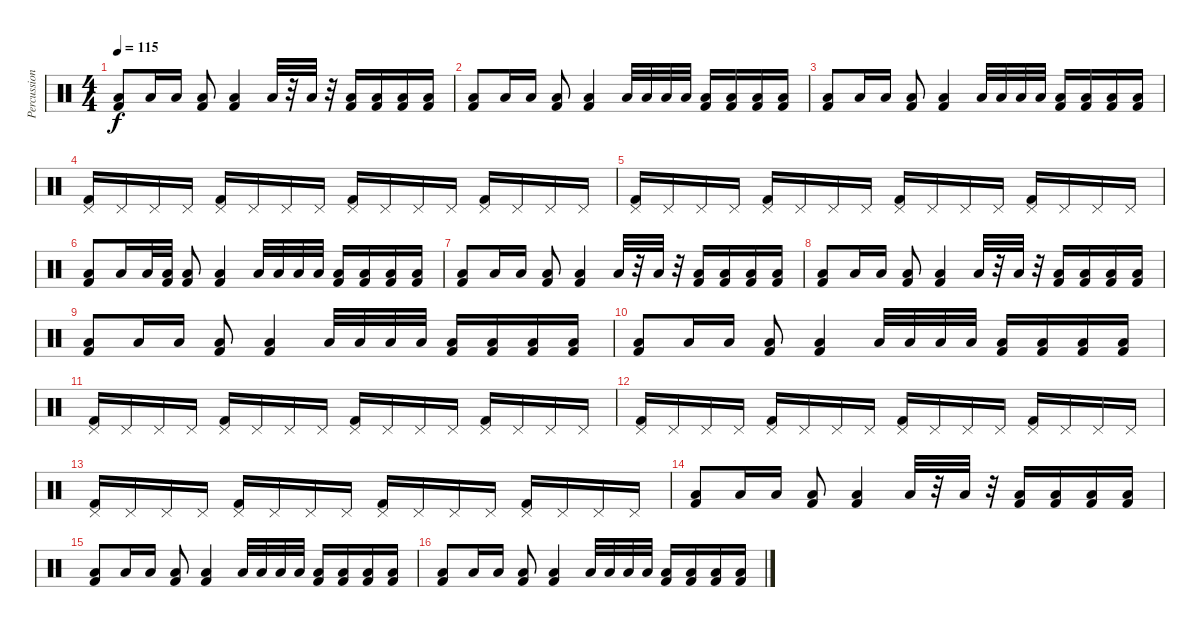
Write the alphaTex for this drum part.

\track ("Percussions" "Percussion") {instrument percussion}
\staff {score}
\articulation defaults
\ts (4 4)
\tempo 115
\clef neutral
\ks c
("Kick (hit) 2" "Low Floor Tom (hit)").8{dy f} "Low Floor Tom (hit)".16 "Low Floor Tom (hit)".16 ("Kick (hit) 2" "Low Floor Tom (hit)").8 ("Kick (hit) 2" "Low Floor Tom (hit)").4 "Low Floor Tom (hit)".32 r.32 "Low Floor Tom (hit)".32 r.32 ("Kick (hit) 2" "Low Floor Tom (hit)").16 ("Kick (hit) 2" "Low Floor Tom (hit)").16 ("Kick (hit) 2" "Low Floor Tom (hit)").16 ("Kick (hit) 2" "Low Floor Tom (hit)").16 |
("Kick (hit) 2" "Low Floor Tom (hit)").8 "Low Floor Tom (hit)".16 "Low Floor Tom (hit)".16 ("Kick (hit) 2" "Low Floor Tom (hit)").8 ("Kick (hit) 2" "Low Floor Tom (hit)").4 "Low Floor Tom (hit)".32 "Low Floor Tom (hit)".32 "Low Floor Tom (hit)".32 "Low Floor Tom (hit)".32 ("Kick (hit) 2" "Low Floor Tom (hit)").16 ("Kick (hit) 2" "Low Floor Tom (hit)").16 ("Kick (hit) 2" "Low Floor Tom (hit)").16 ("Kick (hit) 2" "Low Floor Tom (hit)").16 |
("Kick (hit) 2" "Low Floor Tom (hit)").8 "Low Floor Tom (hit)".16 "Low Floor Tom (hit)".16 ("Kick (hit) 2" "Low Floor Tom (hit)").8 ("Kick (hit) 2" "Low Floor Tom (hit)").4 "Low Floor Tom (hit)".32 "Low Floor Tom (hit)".32 "Low Floor Tom (hit)".32 "Low Floor Tom (hit)".32 ("Kick (hit) 2" "Low Floor Tom (hit)").16 ("Kick (hit) 2" "Low Floor Tom (hit)").16 ("Kick (hit) 2" "Low Floor Tom (hit)").16 ("Kick (hit) 2" "Low Floor Tom (hit)").16 |
("Kick (hit) 2" "Pedal Hi-Hat (hit)").16 "Pedal Hi-Hat (hit)".16 "Pedal Hi-Hat (hit)".16 "Pedal Hi-Hat (hit)".16 ("Kick (hit) 2" "Pedal Hi-Hat (hit)").16 "Pedal Hi-Hat (hit)".16 "Pedal Hi-Hat (hit)".16 "Pedal Hi-Hat (hit)".16 ("Kick (hit) 2" "Pedal Hi-Hat (hit)").16 "Pedal Hi-Hat (hit)".16 "Pedal Hi-Hat (hit)".16 "Pedal Hi-Hat (hit)".16 ("Kick (hit) 2" "Pedal Hi-Hat (hit)").16 "Pedal Hi-Hat (hit)".16 "Pedal Hi-Hat (hit)".16 "Pedal Hi-Hat (hit)".16 |
("Kick (hit) 2" "Pedal Hi-Hat (hit)").16 "Pedal Hi-Hat (hit)".16 "Pedal Hi-Hat (hit)".16 "Pedal Hi-Hat (hit)".16 ("Kick (hit) 2" "Pedal Hi-Hat (hit)").16 "Pedal Hi-Hat (hit)".16 "Pedal Hi-Hat (hit)".16 "Pedal Hi-Hat (hit)".16 ("Kick (hit) 2" "Pedal Hi-Hat (hit)").16 "Pedal Hi-Hat (hit)".16 "Pedal Hi-Hat (hit)".16 "Pedal Hi-Hat (hit)".16 ("Kick (hit) 2" "Pedal Hi-Hat (hit)").16 "Pedal Hi-Hat (hit)".16 "Pedal Hi-Hat (hit)".16 "Pedal Hi-Hat (hit)".16 |
("Kick (hit) 2" "Low Floor Tom (hit)").8 "Low Floor Tom (hit)".16 "Low Floor Tom (hit)".32 ("Kick (hit) 2" "Low Floor Tom (hit)").32 ("Kick (hit) 2" "Low Floor Tom (hit)").8 ("Kick (hit) 2" "Low Floor Tom (hit)").4 "Low Floor Tom (hit)".32 "Low Floor Tom (hit)".32 "Low Floor Tom (hit)".32 "Low Floor Tom (hit)".32 ("Kick (hit) 2" "Low Floor Tom (hit)").16 ("Kick (hit) 2" "Low Floor Tom (hit)").16 ("Kick (hit) 2" "Low Floor Tom (hit)").16 ("Kick (hit) 2" "Low Floor Tom (hit)").16 |
("Kick (hit) 2" "Low Floor Tom (hit)").8 "Low Floor Tom (hit)".16 "Low Floor Tom (hit)".16 ("Kick (hit) 2" "Low Floor Tom (hit)").8 ("Kick (hit) 2" "Low Floor Tom (hit)").4 "Low Floor Tom (hit)".32 r.32 "Low Floor Tom (hit)".32 r.32 ("Kick (hit) 2" "Low Floor Tom (hit)").16 ("Kick (hit) 2" "Low Floor Tom (hit)").16 ("Kick (hit) 2" "Low Floor Tom (hit)").16 ("Kick (hit) 2" "Low Floor Tom (hit)").16 |
("Kick (hit) 2" "Low Floor Tom (hit)").8 "Low Floor Tom (hit)".16 "Low Floor Tom (hit)".16 ("Kick (hit) 2" "Low Floor Tom (hit)").8 ("Kick (hit) 2" "Low Floor Tom (hit)").4 "Low Floor Tom (hit)".32 r.32 "Low Floor Tom (hit)".32 r.32 ("Kick (hit) 2" "Low Floor Tom (hit)").16 ("Kick (hit) 2" "Low Floor Tom (hit)").16 ("Kick (hit) 2" "Low Floor Tom (hit)").16 ("Kick (hit) 2" "Low Floor Tom (hit)").16 |
("Kick (hit) 2" "Low Floor Tom (hit)").8 "Low Floor Tom (hit)".16 "Low Floor Tom (hit)".16 ("Kick (hit) 2" "Low Floor Tom (hit)").8 ("Kick (hit) 2" "Low Floor Tom (hit)").4 "Low Floor Tom (hit)".32 "Low Floor Tom (hit)".32 "Low Floor Tom (hit)".32 "Low Floor Tom (hit)".32 ("Kick (hit) 2" "Low Floor Tom (hit)").16 ("Kick (hit) 2" "Low Floor Tom (hit)").16 ("Kick (hit) 2" "Low Floor Tom (hit)").16 ("Kick (hit) 2" "Low Floor Tom (hit)").16 |
("Kick (hit) 2" "Low Floor Tom (hit)").8 "Low Floor Tom (hit)".16 "Low Floor Tom (hit)".16 ("Kick (hit) 2" "Low Floor Tom (hit)").8 ("Kick (hit) 2" "Low Floor Tom (hit)").4 "Low Floor Tom (hit)".32 "Low Floor Tom (hit)".32 "Low Floor Tom (hit)".32 "Low Floor Tom (hit)".32 ("Kick (hit) 2" "Low Floor Tom (hit)").16 ("Kick (hit) 2" "Low Floor Tom (hit)").16 ("Kick (hit) 2" "Low Floor Tom (hit)").16 ("Kick (hit) 2" "Low Floor Tom (hit)").16 |
("Kick (hit) 2" "Pedal Hi-Hat (hit)").16 "Pedal Hi-Hat (hit)".16 "Pedal Hi-Hat (hit)".16 "Pedal Hi-Hat (hit)".16 ("Kick (hit) 2" "Pedal Hi-Hat (hit)").16 "Pedal Hi-Hat (hit)".16 "Pedal Hi-Hat (hit)".16 "Pedal Hi-Hat (hit)".16 ("Kick (hit) 2" "Pedal Hi-Hat (hit)").16 "Pedal Hi-Hat (hit)".16 "Pedal Hi-Hat (hit)".16 "Pedal Hi-Hat (hit)".16 ("Kick (hit) 2" "Pedal Hi-Hat (hit)").16 "Pedal Hi-Hat (hit)".16 "Pedal Hi-Hat (hit)".16 "Pedal Hi-Hat (hit)".16 |
("Kick (hit) 2" "Pedal Hi-Hat (hit)").16 "Pedal Hi-Hat (hit)".16 "Pedal Hi-Hat (hit)".16 "Pedal Hi-Hat (hit)".16 ("Kick (hit) 2" "Pedal Hi-Hat (hit)").16 "Pedal Hi-Hat (hit)".16 "Pedal Hi-Hat (hit)".16 "Pedal Hi-Hat (hit)".16 ("Kick (hit) 2" "Pedal Hi-Hat (hit)").16 "Pedal Hi-Hat (hit)".16 "Pedal Hi-Hat (hit)".16 "Pedal Hi-Hat (hit)".16 ("Kick (hit) 2" "Pedal Hi-Hat (hit)").16 "Pedal Hi-Hat (hit)".16 "Pedal Hi-Hat (hit)".16 "Pedal Hi-Hat (hit)".16 |
("Kick (hit) 2" "Pedal Hi-Hat (hit)").16 "Pedal Hi-Hat (hit)".16 "Pedal Hi-Hat (hit)".16 "Pedal Hi-Hat (hit)".16 ("Kick (hit) 2" "Pedal Hi-Hat (hit)").16 "Pedal Hi-Hat (hit)".16 "Pedal Hi-Hat (hit)".16 "Pedal Hi-Hat (hit)".16 ("Kick (hit) 2" "Pedal Hi-Hat (hit)").16 "Pedal Hi-Hat (hit)".16 "Pedal Hi-Hat (hit)".16 "Pedal Hi-Hat (hit)".16 ("Kick (hit) 2" "Pedal Hi-Hat (hit)").16 "Pedal Hi-Hat (hit)".16 "Pedal Hi-Hat (hit)".16 "Pedal Hi-Hat (hit)".16 |
("Kick (hit) 2" "Low Floor Tom (hit)").8 "Low Floor Tom (hit)".16 "Low Floor Tom (hit)".16 ("Kick (hit) 2" "Low Floor Tom (hit)").8 ("Kick (hit) 2" "Low Floor Tom (hit)").4 "Low Floor Tom (hit)".32 r.32 "Low Floor Tom (hit)".32 r.32 ("Kick (hit) 2" "Low Floor Tom (hit)").16 ("Kick (hit) 2" "Low Floor Tom (hit)").16 ("Kick (hit) 2" "Low Floor Tom (hit)").16 ("Kick (hit) 2" "Low Floor Tom (hit)").16 |
("Kick (hit) 2" "Low Floor Tom (hit)").8 "Low Floor Tom (hit)".16 "Low Floor Tom (hit)".16 ("Kick (hit) 2" "Low Floor Tom (hit)").8 ("Kick (hit) 2" "Low Floor Tom (hit)").4 "Low Floor Tom (hit)".32 "Low Floor Tom (hit)".32 "Low Floor Tom (hit)".32 "Low Floor Tom (hit)".32 ("Kick (hit) 2" "Low Floor Tom (hit)").16 ("Kick (hit) 2" "Low Floor Tom (hit)").16 ("Kick (hit) 2" "Low Floor Tom (hit)").16 ("Kick (hit) 2" "Low Floor Tom (hit)").16 |
("Kick (hit) 2" "Low Floor Tom (hit)").8 "Low Floor Tom (hit)".16 "Low Floor Tom (hit)".16 ("Kick (hit) 2" "Low Floor Tom (hit)").8 ("Kick (hit) 2" "Low Floor Tom (hit)").4 "Low Floor Tom (hit)".32 "Low Floor Tom (hit)".32 "Low Floor Tom (hit)".32 "Low Floor Tom (hit)".32 ("Kick (hit) 2" "Low Floor Tom (hit)").16 ("Kick (hit) 2" "Low Floor Tom (hit)").16 ("Kick (hit) 2" "Low Floor Tom (hit)").16 ("Kick (hit) 2" "Low Floor Tom (hit)").16
